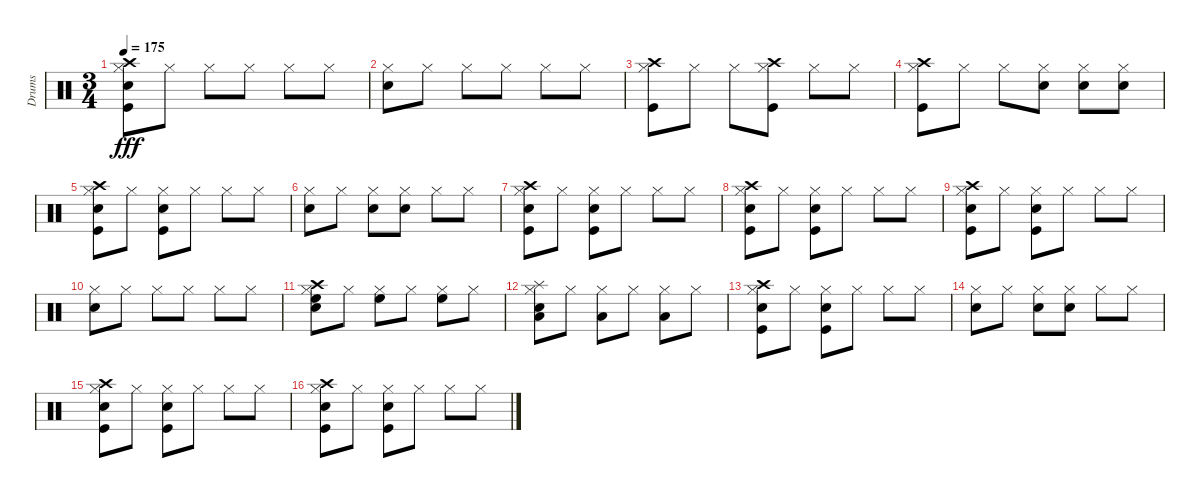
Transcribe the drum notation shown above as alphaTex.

\track ("Drums" "Drums") {instrument percussion}
\staff {score}
\articulation defaults
\ts (3 4)
\tempo 175
\clef neutral
\ks c
("Hi-Hat (closed)" "Kick (hit)" "Snare (hit) 2" "Crash high (hit)").8{dy fff} "Hi-Hat (closed)".8 "Hi-Hat (closed)".8 "Hi-Hat (closed)".8 "Hi-Hat (closed)".8 "Hi-Hat (closed)".8 |
("Snare (hit) 2" "Hi-Hat (closed)").8 "Hi-Hat (closed)".8 "Hi-Hat (closed)".8 "Hi-Hat (closed)".8 "Hi-Hat (closed)".8 "Hi-Hat (closed)".8 |
("Hi-Hat (closed)" "Crash high (hit)" "Kick (hit)").8 "Hi-Hat (closed)".8 "Hi-Hat (closed)".8 ("Hi-Hat (closed)" "Crash high (hit)" "Kick (hit)").8 "Hi-Hat (closed)".8 "Hi-Hat (closed)".8 |
("Hi-Hat (closed)" "Crash high (hit)" "Kick (hit)").8 "Hi-Hat (closed)".8 "Hi-Hat (closed)".8 ("Hi-Hat (closed)" "Snare (hit) 2").8 ("Hi-Hat (closed)" "Snare (hit) 2").8 ("Hi-Hat (closed)" "Snare (hit) 2").8 |
("Hi-Hat (closed)" "Kick (hit)" "Snare (hit) 2" "Crash high (hit)").8 "Hi-Hat (closed)".8 ("Hi-Hat (closed)" "Kick (hit)" "Snare (hit) 2").8 "Hi-Hat (closed)".8 "Hi-Hat (closed)".8 "Hi-Hat (closed)".8 |
("Hi-Hat (closed)" "Snare (hit) 2").8 "Hi-Hat (closed)".8 ("Hi-Hat (closed)" "Snare (hit) 2").8 ("Hi-Hat (closed)" "Snare (hit) 2").8 "Hi-Hat (closed)".8 "Hi-Hat (closed)".8 |
("Hi-Hat (closed)" "Kick (hit)" "Snare (hit) 2" "Crash high (hit)").8 "Hi-Hat (closed)".8 ("Hi-Hat (closed)" "Kick (hit)" "Snare (hit) 2").8 "Hi-Hat (closed)".8 "Hi-Hat (closed)".8 "Hi-Hat (closed)".8 |
("Hi-Hat (closed)" "Kick (hit)" "Snare (hit) 2" "Crash high (hit)").8 "Hi-Hat (closed)".8 ("Hi-Hat (closed)" "Kick (hit)" "Snare (hit) 2").8 "Hi-Hat (closed)".8 "Hi-Hat (closed)".8 "Hi-Hat (closed)".8 |
("Hi-Hat (closed)" "Kick (hit)" "Snare (hit) 2" "Crash high (hit)").8 "Hi-Hat (closed)".8 ("Hi-Hat (closed)" "Kick (hit)" "Snare (hit) 2").8 "Hi-Hat (closed)".8 "Hi-Hat (closed)".8 "Hi-Hat (closed)".8 |
("Hi-Hat (closed)" "Snare (hit) 2").8 "Hi-Hat (closed)".8 "Hi-Hat (closed)".8 "Hi-Hat (closed)".8 "Hi-Hat (closed)".8 "Hi-Hat (closed)".8 |
("High Floor Tom (hit)" "Crash high (hit)" "Snare (hit) 2" "Hi-Hat (closed)").8 "Hi-Hat (closed)".8 ("High Floor Tom (hit)" "Hi-Hat (closed)").8 "Hi-Hat (closed)".8 ("High Floor Tom (hit)" "Hi-Hat (closed)").8 "Hi-Hat (closed)".8 |
("Low Tom (hit)" "Snare (hit) 2" "Hi-Hat (closed)" "Splash (hit)").8 "Hi-Hat (closed)".8 ("Low Tom (hit)" "Hi-Hat (closed)").8 "Hi-Hat (closed)".8 ("Low Tom (hit)" "Hi-Hat (closed)").8 "Hi-Hat (closed)".8 |
("Hi-Hat (closed)" "Kick (hit)" "Snare (hit) 2" "Crash high (hit)").8 "Hi-Hat (closed)".8 ("Hi-Hat (closed)" "Kick (hit)" "Snare (hit) 2").8 "Hi-Hat (closed)".8 "Hi-Hat (closed)".8 "Hi-Hat (closed)".8 |
("Hi-Hat (closed)" "Snare (hit) 2").8 "Hi-Hat (closed)".8 ("Hi-Hat (closed)" "Snare (hit) 2").8 ("Hi-Hat (closed)" "Snare (hit) 2").8 "Hi-Hat (closed)".8 "Hi-Hat (closed)".8 |
("Hi-Hat (closed)" "Kick (hit)" "Snare (hit) 2" "Crash high (hit)").8 "Hi-Hat (closed)".8 ("Hi-Hat (closed)" "Kick (hit)" "Snare (hit) 2").8 "Hi-Hat (closed)".8 "Hi-Hat (closed)".8 "Hi-Hat (closed)".8 |
("Hi-Hat (closed)" "Kick (hit)" "Snare (hit) 2" "Crash high (hit)").8 "Hi-Hat (closed)".8 ("Hi-Hat (closed)" "Kick (hit)" "Snare (hit) 2").8 "Hi-Hat (closed)".8 "Hi-Hat (closed)".8 "Hi-Hat (closed)".8
